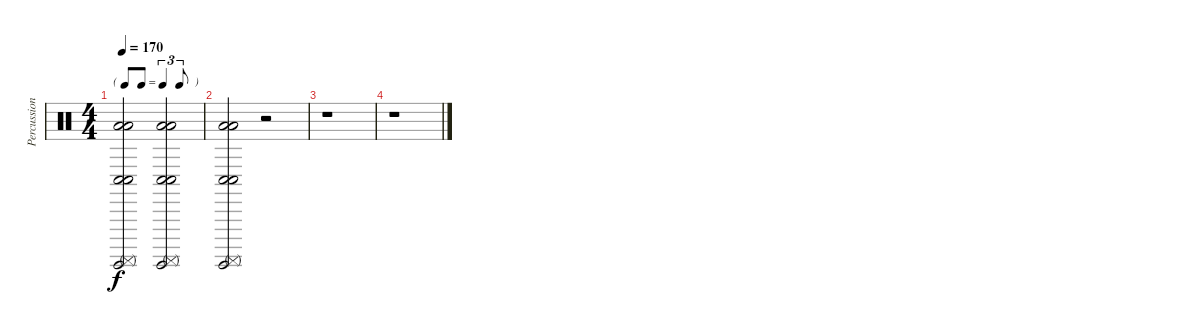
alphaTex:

\track ("Percussions" "Percussion") {instrument percussion}
\staff {score}
\articulation defaults
\ts (4 4)
\tf triplet8th
\tempo 170
\clef neutral
\ks c
("Conga low (hit)" "Conga low (hit)" "Low Floor Tom (hit)" "Surdo (hit)" "Surdo (mute)" "Low Floor Tom (hit)").2{dy f} ("Conga low (hit)" "Conga low (hit)" "Low Floor Tom (hit)" "Surdo (hit)" "Surdo (mute)" "Low Floor Tom (hit)").2 |
("Conga low (hit)" "Conga low (hit)" "Low Floor Tom (hit)" "Surdo (hit)" "Surdo (mute)" "Low Floor Tom (hit)").2 r.2 |
r.1 |
r.1
